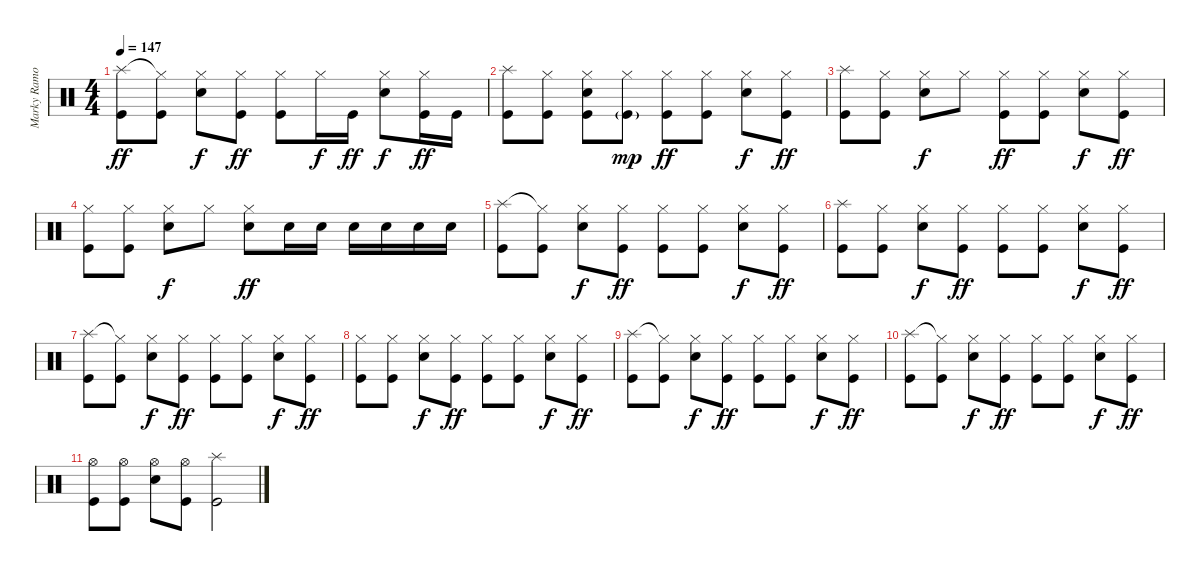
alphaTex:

\track ("Marky Ramone - Drums" "Marky Ramo") {instrument percussion}
\staff {score}
\articulation defaults
\ts (4 4)
\tempo 147
\clef neutral
\ks c
("Splash (hit)" "Kick (hit)").8{dy ff} ("Hi-Hat (closed)"{t} "Kick (hit)").8 ("Hi-Hat (closed)" "Snare (hit) 2").8{dy f} ("Hi-Hat (closed)" "Kick (hit)").8{dy ff} ("Hi-Hat (closed)" "Kick (hit)").8 "Hi-Hat (closed)".16{dy f} "Kick (hit)".16{dy ff} ("Hi-Hat (closed)" "Snare (hit) 2").8{dy f} ("Hi-Hat (closed)" "Kick (hit)").16{dy ff} "Kick (hit)".16 |
("Splash (hit)" "Kick (hit)").8 ("Hi-Hat (closed)" "Kick (hit)").8 ("Snare (hit) 2" "Hi-Hat (closed)" "Kick (hit)").8 ("Hi-Hat (closed)" "Kick (hit)"{g}).8{dy mp} ("Hi-Hat (closed)" "Kick (hit)").8{dy ff} ("Hi-Hat (closed)" "Kick (hit)").8 ("Hi-Hat (closed)" "Snare (hit) 2").8{dy f} ("Hi-Hat (closed)" "Kick (hit)").8{dy ff} |
("Splash (hit)" "Kick (hit)").8 ("Hi-Hat (closed)" "Kick (hit)").8 ("Hi-Hat (closed)" "Snare (hit) 2").8{dy f} "Hi-Hat (closed)".8 ("Hi-Hat (closed)" "Kick (hit)").8{dy ff} ("Hi-Hat (closed)" "Kick (hit)").8 ("Hi-Hat (closed)" "Snare (hit) 2").8{dy f} ("Hi-Hat (closed)" "Kick (hit)").8{dy ff} |
("Hi-Hat (closed)" "Kick (hit)").8 ("Hi-Hat (closed)" "Kick (hit)").8 ("Hi-Hat (closed)" "Snare (hit) 2").8{dy f} "Hi-Hat (closed)".8 ("Hi-Hat (closed)" "Snare (hit) 2").8{dy ff} "Snare (hit) 2".16 "Snare (hit) 2".16 "Snare (hit) 2".16 "Snare (hit) 2".16 "Snare (hit) 2".16 "Snare (hit) 2".16 |
("Splash (hit)" "Kick (hit)").8 ("Hi-Hat (closed)"{t} "Kick (hit)").8 ("Hi-Hat (closed)" "Snare (hit) 2").8{dy f} ("Hi-Hat (closed)" "Kick (hit)").8{dy ff} ("Hi-Hat (closed)" "Kick (hit)").8 ("Hi-Hat (closed)" "Kick (hit)").8 ("Hi-Hat (closed)" "Snare (hit) 2").8{dy f} ("Hi-Hat (closed)" "Kick (hit)").8{dy ff} |
("Splash (hit)" "Kick (hit)").8 ("Hi-Hat (closed)" "Kick (hit)").8 ("Hi-Hat (closed)" "Snare (hit) 2").8{dy f} ("Hi-Hat (closed)" "Kick (hit)").8{dy ff} ("Hi-Hat (closed)" "Kick (hit)").8 ("Hi-Hat (closed)" "Kick (hit)").8 ("Hi-Hat (closed)" "Snare (hit) 2").8{dy f} ("Hi-Hat (closed)" "Kick (hit)").8{dy ff} |
("Splash (hit)" "Kick (hit)").8 ("Hi-Hat (closed)"{t} "Kick (hit)").8 ("Hi-Hat (closed)" "Snare (hit) 2").8{dy f} ("Hi-Hat (closed)" "Kick (hit)").8{dy ff} ("Hi-Hat (closed)" "Kick (hit)").8 ("Hi-Hat (closed)" "Kick (hit)").8 ("Hi-Hat (closed)" "Snare (hit) 2").8{dy f} ("Hi-Hat (closed)" "Kick (hit)").8{dy ff} |
("Hi-Hat (closed)" "Kick (hit)").8 ("Hi-Hat (closed)" "Kick (hit)").8 ("Hi-Hat (closed)" "Snare (hit) 2").8{dy f} ("Hi-Hat (closed)" "Kick (hit)").8{dy ff} ("Hi-Hat (closed)" "Kick (hit)").8 ("Hi-Hat (closed)" "Kick (hit)").8 ("Hi-Hat (closed)" "Snare (hit) 2").8{dy f} ("Hi-Hat (closed)" "Kick (hit)").8{dy ff} |
("Splash (hit)" "Kick (hit)").8 ("Hi-Hat (closed)"{t} "Kick (hit)").8 ("Hi-Hat (closed)" "Snare (hit) 2").8{dy f} ("Hi-Hat (closed)" "Kick (hit)").8{dy ff} ("Hi-Hat (closed)" "Kick (hit)").8 ("Hi-Hat (closed)" "Kick (hit)").8 ("Hi-Hat (closed)" "Snare (hit) 2").8{dy f} ("Hi-Hat (closed)" "Kick (hit)").8{dy ff} |
("Splash (hit)" "Kick (hit)").8 ("Hi-Hat (closed)"{t} "Kick (hit)").8 ("Hi-Hat (closed)" "Snare (hit) 2").8{dy f} ("Hi-Hat (closed)" "Kick (hit)").8{dy ff} ("Hi-Hat (closed)" "Kick (hit)").8 ("Hi-Hat (closed)" "Kick (hit)").8 ("Hi-Hat (closed)" "Snare (hit) 2").8{dy f} ("Hi-Hat (closed)" "Kick (hit)").8{dy ff} |
("Hi-Hat (open)" "Kick (hit)").8 ("Hi-Hat (open)" "Kick (hit)").8 ("Hi-Hat (open)" "Snare (hit) 2").8 ("Hi-Hat (open)" "Kick (hit)").8 ("Splash (hit)" "Kick (hit)").2
